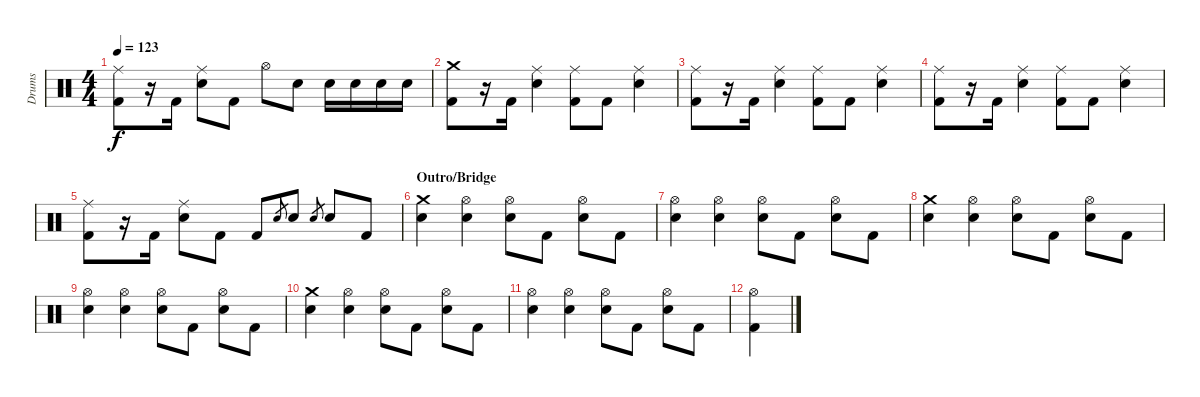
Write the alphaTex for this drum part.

\track ("Drums" "Drums") {instrument percussion}
\staff {score}
\articulation defaults
\ts (4 4)
\tempo 123
\clef neutral
\ks c
("Ride (middle)" "Kick (hit) 2").8{dy f} r.16 "Kick (hit) 2".16 ("Ride (middle)" "Electric Snare (hit)").8 "Kick (hit) 2".8 "Hi-Hat (open)".8 "Electric Snare (hit)".8 "Electric Snare (hit)".16 "Electric Snare (hit)".16 "Electric Snare (hit)".16 "Electric Snare (hit)".16 |
("Crash medium (hit)" "Kick (hit) 2").8 r.16 "Kick (hit) 2".16 ("Ride (middle)" "Electric Snare (hit)").4 ("Ride (middle)" "Kick (hit) 2").8 "Kick (hit) 2".8 ("Ride (middle)" "Electric Snare (hit)").4 |
("Ride (middle)" "Kick (hit) 2").8 r.16 "Kick (hit) 2".16 ("Ride (middle)" "Electric Snare (hit)").4 ("Ride (middle)" "Kick (hit) 2").8 "Kick (hit) 2".8 ("Ride (middle)" "Electric Snare (hit)").4 |
("Ride (middle)" "Kick (hit) 2").8 r.16 "Kick (hit) 2".16 ("Ride (middle)" "Electric Snare (hit)").4 ("Ride (middle)" "Kick (hit) 2").8 "Kick (hit) 2".8 ("Ride (middle)" "Electric Snare (hit)").4 |
("Ride (middle)" "Kick (hit) 2").8 r.16 "Kick (hit) 2".16 ("Ride (middle)" "Electric Snare (hit)").8 "Kick (hit) 2".8 "Kick (hit) 2".8 "Electric Snare (hit)".8{gr} "Electric Snare (hit)".8 "Electric Snare (hit)".8{gr} "Electric Snare (hit)".8 "Kick (hit) 2".8 |
\section ("" "Outro/Bridge")
("Crash medium (hit)" "Electric Snare (hit)").4 ("Hi-Hat (open)" "Electric Snare (hit)").4 ("Hi-Hat (open)" "Electric Snare (hit)").8 "Kick (hit) 2".8 ("Hi-Hat (open)" "Electric Snare (hit)").8 "Kick (hit) 2".8 |
("Hi-Hat (open)" "Electric Snare (hit)").4 ("Hi-Hat (open)" "Electric Snare (hit)").4 ("Hi-Hat (open)" "Electric Snare (hit)").8 "Kick (hit) 2".8 ("Hi-Hat (open)" "Electric Snare (hit)").8 "Kick (hit) 2".8 |
("Crash medium (hit)" "Electric Snare (hit)").4 ("Hi-Hat (open)" "Electric Snare (hit)").4 ("Hi-Hat (open)" "Electric Snare (hit)").8 "Kick (hit) 2".8 ("Hi-Hat (open)" "Electric Snare (hit)").8 "Kick (hit) 2".8 |
("Hi-Hat (open)" "Electric Snare (hit)").4 ("Hi-Hat (open)" "Electric Snare (hit)").4 ("Hi-Hat (open)" "Electric Snare (hit)").8 "Kick (hit) 2".8 ("Hi-Hat (open)" "Electric Snare (hit)").8 "Kick (hit) 2".8 |
("Crash medium (hit)" "Electric Snare (hit)").4 ("Hi-Hat (open)" "Electric Snare (hit)").4 ("Hi-Hat (open)" "Electric Snare (hit)").8 "Kick (hit) 2".8 ("Hi-Hat (open)" "Electric Snare (hit)").8 "Kick (hit) 2".8 |
("Hi-Hat (open)" "Electric Snare (hit)").4 ("Hi-Hat (open)" "Electric Snare (hit)").4 ("Hi-Hat (open)" "Electric Snare (hit)").8 "Kick (hit) 2".8 ("Hi-Hat (open)" "Electric Snare (hit)").8 "Kick (hit) 2".8 |
("Hi-Hat (open)" "Kick (hit) 2").4
